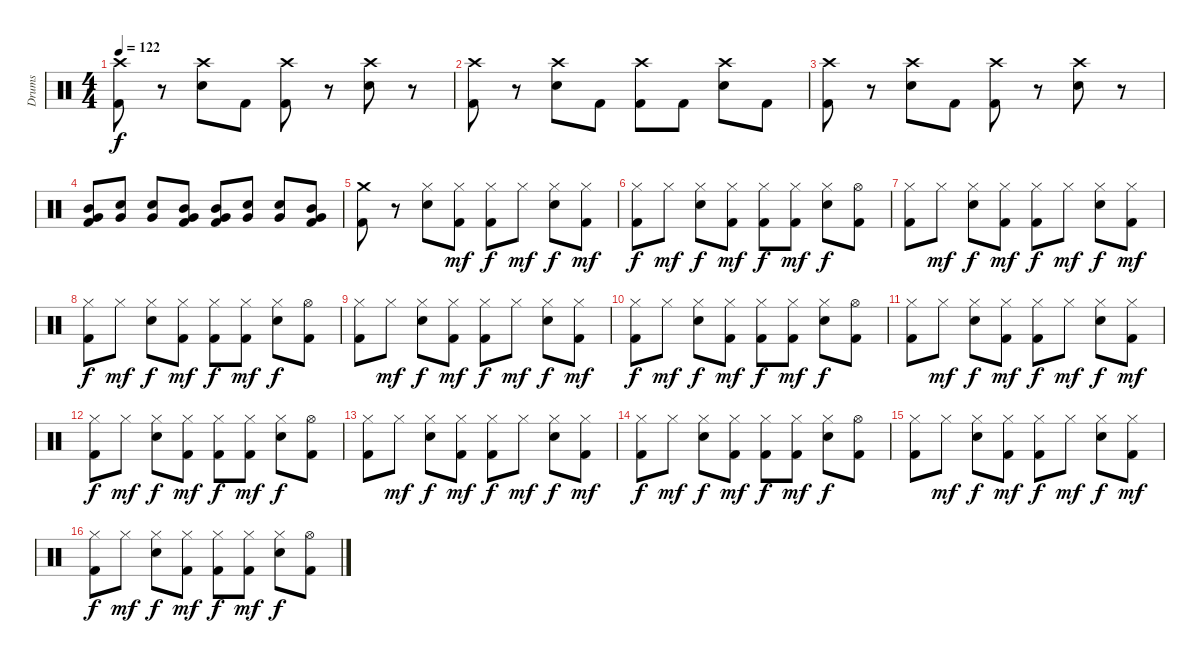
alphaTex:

\track ("Drums" "Drums") {instrument percussion}
\staff {score}
\articulation defaults
\ts (4 4)
\tempo 122
\clef neutral
\ks c
("Crash high (hit)" "Kick (hit) 2").8{dy f} r.8 ("Crash high (hit)" "Electric Snare (hit)").8 "Kick (hit) 2".8 ("Crash high (hit)" "Kick (hit) 2").8 r.8 ("Crash high (hit)" "Electric Snare (hit)").8 r.8 |
("Crash high (hit)" "Kick (hit) 2").8 r.8 ("Crash high (hit)" "Electric Snare (hit)").8 "Kick (hit) 2".8 ("Crash high (hit)" "Kick (hit) 2").8 "Kick (hit) 2".8 ("Crash high (hit)" "Electric Snare (hit)").8 "Kick (hit) 2".8 |
("Crash high (hit)" "Kick (hit) 2").8 r.8 ("Crash high (hit)" "Electric Snare (hit)").8 "Kick (hit) 2".8 ("Crash high (hit)" "Kick (hit) 2").8 r.8 ("Crash high (hit)" "Electric Snare (hit)").8 r.8 |
("Very Low Tom (hit)" "Mid Tom (hit)" "Kick (hit) 2").8 ("Very Low Tom (hit)" "Electric Snare (hit)").8 ("Very Low Tom (hit)" "Electric Snare (hit)").8 ("Very Low Tom (hit)" "Mid Tom (hit)" "Kick (hit) 2").8 ("Very Low Tom (hit)" "Mid Tom (hit)" "Kick (hit) 2").8 ("Very Low Tom (hit)" "Electric Snare (hit)").8 ("Very Low Tom (hit)" "Electric Snare (hit)").8 ("Very Low Tom (hit)" "Mid Tom (hit)" "Kick (hit) 2").8 |
("Crash medium (hit)" "Kick (hit) 2").8 r.8 ("Hi-Hat (closed)" "Electric Snare (hit)").8 ("Hi-Hat (closed)" "Kick (hit) 2").8{dy mf} ("Hi-Hat (closed)" "Kick (hit) 2").8{dy f} "Hi-Hat (closed)".8{dy mf} ("Hi-Hat (closed)" "Electric Snare (hit)").8{dy f} ("Hi-Hat (closed)" "Kick (hit) 2").8{dy mf} |
("Hi-Hat (closed)" "Kick (hit) 2").8{dy f} "Hi-Hat (closed)".8{dy mf} ("Hi-Hat (closed)" "Electric Snare (hit)").8{dy f} ("Hi-Hat (closed)" "Kick (hit) 2").8{dy mf} ("Hi-Hat (closed)" "Kick (hit) 2").8{dy f} ("Hi-Hat (closed)" "Kick (hit) 2").8{dy mf} ("Hi-Hat (closed)" "Electric Snare (hit)").8{dy f} ("Hi-Hat (open)" "Kick (hit) 2").8 |
("Hi-Hat (closed)" "Kick (hit) 2").8 "Hi-Hat (closed)".8{dy mf} ("Hi-Hat (closed)" "Electric Snare (hit)").8{dy f} ("Hi-Hat (closed)" "Kick (hit) 2").8{dy mf} ("Hi-Hat (closed)" "Kick (hit) 2").8{dy f} "Hi-Hat (closed)".8{dy mf} ("Hi-Hat (closed)" "Electric Snare (hit)").8{dy f} ("Hi-Hat (closed)" "Kick (hit) 2").8{dy mf} |
("Hi-Hat (closed)" "Kick (hit) 2").8{dy f} "Hi-Hat (closed)".8{dy mf} ("Hi-Hat (closed)" "Electric Snare (hit)").8{dy f} ("Hi-Hat (closed)" "Kick (hit) 2").8{dy mf} ("Hi-Hat (closed)" "Kick (hit) 2").8{dy f} ("Hi-Hat (closed)" "Kick (hit) 2").8{dy mf} ("Hi-Hat (closed)" "Electric Snare (hit)").8{dy f} ("Hi-Hat (open)" "Kick (hit) 2").8 |
("Hi-Hat (closed)" "Kick (hit) 2").8 "Hi-Hat (closed)".8{dy mf} ("Hi-Hat (closed)" "Electric Snare (hit)").8{dy f} ("Hi-Hat (closed)" "Kick (hit) 2").8{dy mf} ("Hi-Hat (closed)" "Kick (hit) 2").8{dy f} "Hi-Hat (closed)".8{dy mf} ("Hi-Hat (closed)" "Electric Snare (hit)").8{dy f} ("Hi-Hat (closed)" "Kick (hit) 2").8{dy mf} |
("Hi-Hat (closed)" "Kick (hit) 2").8{dy f} "Hi-Hat (closed)".8{dy mf} ("Hi-Hat (closed)" "Electric Snare (hit)").8{dy f} ("Hi-Hat (closed)" "Kick (hit) 2").8{dy mf} ("Hi-Hat (closed)" "Kick (hit) 2").8{dy f} ("Hi-Hat (closed)" "Kick (hit) 2").8{dy mf} ("Hi-Hat (closed)" "Electric Snare (hit)").8{dy f} ("Hi-Hat (open)" "Kick (hit) 2").8 |
("Hi-Hat (closed)" "Kick (hit) 2").8 "Hi-Hat (closed)".8{dy mf} ("Hi-Hat (closed)" "Electric Snare (hit)").8{dy f} ("Hi-Hat (closed)" "Kick (hit) 2").8{dy mf} ("Hi-Hat (closed)" "Kick (hit) 2").8{dy f} "Hi-Hat (closed)".8{dy mf} ("Hi-Hat (closed)" "Electric Snare (hit)").8{dy f} ("Hi-Hat (closed)" "Kick (hit) 2").8{dy mf} |
("Hi-Hat (closed)" "Kick (hit) 2").8{dy f} "Hi-Hat (closed)".8{dy mf} ("Hi-Hat (closed)" "Electric Snare (hit)").8{dy f} ("Hi-Hat (closed)" "Kick (hit) 2").8{dy mf} ("Hi-Hat (closed)" "Kick (hit) 2").8{dy f} ("Hi-Hat (closed)" "Kick (hit) 2").8{dy mf} ("Hi-Hat (closed)" "Electric Snare (hit)").8{dy f} ("Hi-Hat (open)" "Kick (hit) 2").8 |
("Hi-Hat (closed)" "Kick (hit) 2").8 "Hi-Hat (closed)".8{dy mf} ("Hi-Hat (closed)" "Electric Snare (hit)").8{dy f} ("Hi-Hat (closed)" "Kick (hit) 2").8{dy mf} ("Hi-Hat (closed)" "Kick (hit) 2").8{dy f} "Hi-Hat (closed)".8{dy mf} ("Hi-Hat (closed)" "Electric Snare (hit)").8{dy f} ("Hi-Hat (closed)" "Kick (hit) 2").8{dy mf} |
("Hi-Hat (closed)" "Kick (hit) 2").8{dy f} "Hi-Hat (closed)".8{dy mf} ("Hi-Hat (closed)" "Electric Snare (hit)").8{dy f} ("Hi-Hat (closed)" "Kick (hit) 2").8{dy mf} ("Hi-Hat (closed)" "Kick (hit) 2").8{dy f} ("Hi-Hat (closed)" "Kick (hit) 2").8{dy mf} ("Hi-Hat (closed)" "Electric Snare (hit)").8{dy f} ("Hi-Hat (open)" "Kick (hit) 2").8 |
("Hi-Hat (closed)" "Kick (hit) 2").8 "Hi-Hat (closed)".8{dy mf} ("Hi-Hat (closed)" "Electric Snare (hit)").8{dy f} ("Hi-Hat (closed)" "Kick (hit) 2").8{dy mf} ("Hi-Hat (closed)" "Kick (hit) 2").8{dy f} "Hi-Hat (closed)".8{dy mf} ("Hi-Hat (closed)" "Electric Snare (hit)").8{dy f} ("Hi-Hat (closed)" "Kick (hit) 2").8{dy mf} |
("Hi-Hat (closed)" "Kick (hit) 2").8{dy f} "Hi-Hat (closed)".8{dy mf} ("Hi-Hat (closed)" "Electric Snare (hit)").8{dy f} ("Hi-Hat (closed)" "Kick (hit) 2").8{dy mf} ("Hi-Hat (closed)" "Kick (hit) 2").8{dy f} ("Hi-Hat (closed)" "Kick (hit) 2").8{dy mf} ("Hi-Hat (closed)" "Electric Snare (hit)").8{dy f} ("Hi-Hat (open)" "Kick (hit) 2").8
